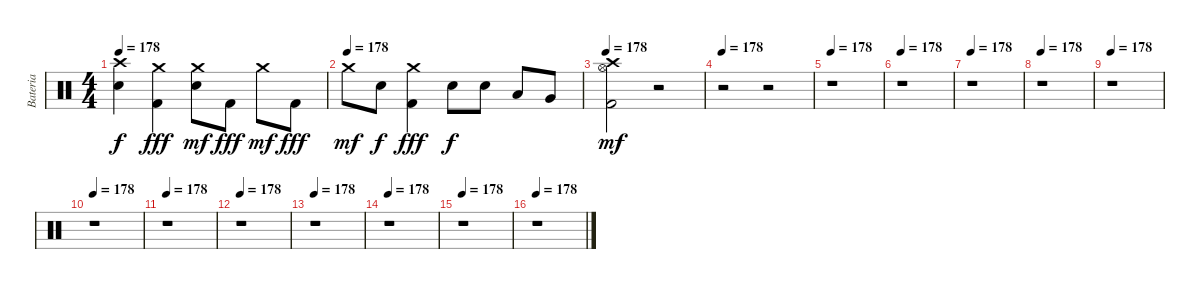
\track ("Bateria" "Bateria") {instrument percussion}
\staff {score}
\articulation defaults
\ts (4 4)
\tempo 178
\clef neutral
\ks c
("Crash high (hit)" "Electric Snare (hit)").4{dy f} ("Crash medium (hit)" "Kick (hit) 2").4{dy fff} ("Crash medium (hit)" "Electric Snare (hit)").8{dy mf} "Kick (hit) 2".8{dy fff} "Crash medium (hit)".8{dy mf} "Kick (hit) 2".8{dy fff} |
\tempo (178)
"Crash medium (hit)".8{dy mf} "Electric Snare (hit)".8{dy f} ("Crash medium (hit)" "Kick (hit) 2").4{dy fff} "Electric Snare (hit)".8{dy f} "Electric Snare (hit)".8 "Low Tom (hit)".8 "Very Low Tom (hit)".8 |
\tempo 178
("Crash high (hit)" "Hi-Hat (open)" "Kick (hit) 2").2{dy mf} r.2 |
\tempo 178
r.2 r.2 |
\tempo 178
r.1 |
\tempo 178
r.1 |
\tempo 178
r.1 |
\tempo 178
r.1 |
\tempo 178
r.1 |
\tempo 178
r.1 |
\tempo 178
r.1 |
\tempo 178
r.1 |
\tempo 178
r.1 |
\tempo 178
r.1 |
\tempo 178
r.1 |
\tempo 178
r.1
